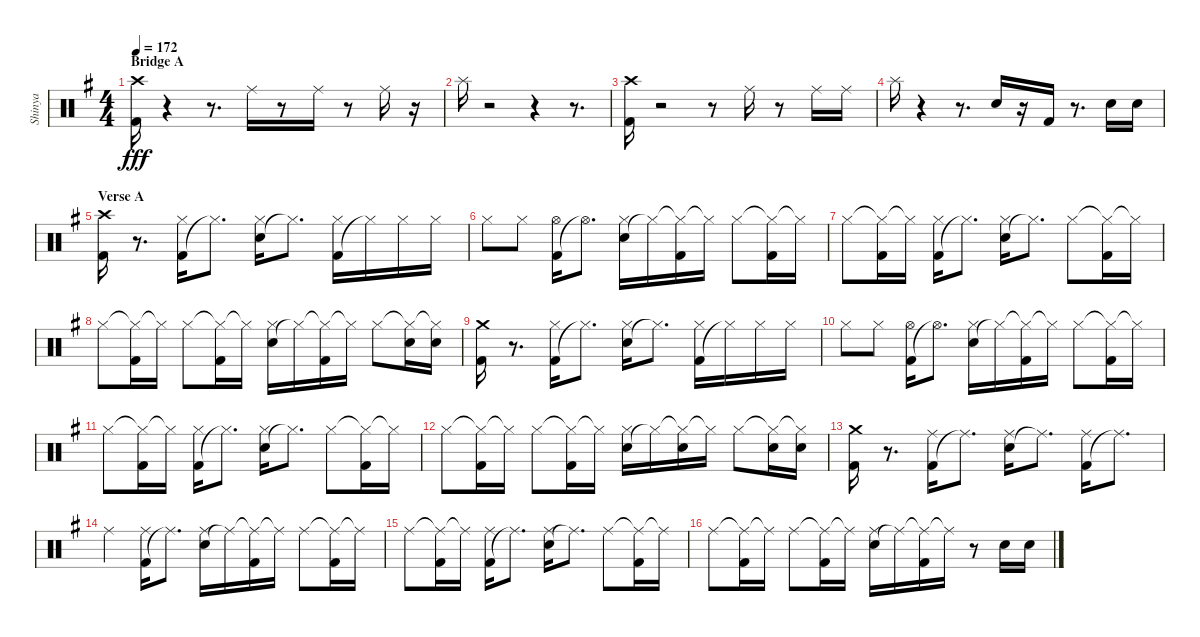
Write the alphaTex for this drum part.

\track ("Shinya" "Shinya") {instrument percussion}
\staff {score}
\articulation defaults
\ts (4 4)
\section ("" "Bridge A")
\tempo 172
\clef neutral
\ks eminor
("Kick (hit) 2" "Crash high (hit)").16{dy fff} r.4 r.8{d} "Ride (middle)".16 r.8 "Ride (middle)".16 r.8 "Ride (middle)".16 r.16 |
"Splash (hit)".16 r.2 r.4 r.8{d} |
("Kick (hit) 2" "Crash high (hit)").16 r.2 r.8 "Ride (middle)".16 r.8 "Ride (middle)".16 "Ride (middle)".16 |
"Splash (hit)".16 r.4 r.8{d} "Snare (hit) 2".16 r.16 "Kick (hit) 2".16 r.8{d} "Snare (hit) 2".16 "Snare (hit) 2".16 |
\section ("" "Verse A")
("Kick (hit) 2" "Crash high (hit)").16 r.8{d} ("Kick (hit) 2" "Hi-Hat (closed)").16 "Hi-Hat (closed)"{t}.8{d} ("Snare (hit) 2" "Hi-Hat (closed)").16 "Hi-Hat (closed)"{t}.8{d} ("Kick (hit) 2" "Hi-Hat (closed)").16 "Hi-Hat (closed)"{t}.16 "Hi-Hat (closed)".16 "Hi-Hat (closed)".16 |
"Hi-Hat (closed)".8 "Hi-Hat (closed)".8 ("Kick (hit) 2" "Hi-Hat (open)").16 "Hi-Hat (open)"{t}.8{d} ("Snare (hit) 2" "Hi-Hat (closed)").16 "Hi-Hat (closed)"{t}.16 ("Hi-Hat (closed)"{t} "Kick (hit) 2").16 "Hi-Hat (closed)"{t}.16 "Hi-Hat (closed)".8 ("Hi-Hat (closed)"{t} "Kick (hit) 2").16 "Hi-Hat (closed)"{t}.16 |
"Hi-Hat (closed)".8 ("Hi-Hat (closed)"{t} "Kick (hit) 2").16 "Hi-Hat (closed)"{t}.16 ("Kick (hit) 2" "Hi-Hat (closed)").16 "Hi-Hat (closed)"{t}.8{d} ("Snare (hit) 2" "Hi-Hat (closed)").16 "Hi-Hat (closed)"{t}.8{d} "Hi-Hat (closed)".8 ("Hi-Hat (closed)"{t} "Kick (hit) 2").16 "Hi-Hat (closed)"{t}.16 |
"Hi-Hat (closed)".8 ("Hi-Hat (closed)"{t} "Kick (hit) 2").16 "Hi-Hat (closed)"{t}.16 "Hi-Hat (closed)".8 ("Hi-Hat (closed)"{t} "Kick (hit) 2").16 "Hi-Hat (closed)"{t}.16 ("Snare (hit) 2" "Hi-Hat (closed)").16 "Hi-Hat (closed)"{t}.16 ("Hi-Hat (closed)"{t} "Kick (hit) 2").16 "Hi-Hat (closed)"{t}.16 "Hi-Hat (closed)".8 ("Hi-Hat (closed)"{t} "Snare (hit) 2").16 ("Hi-Hat (closed)"{t} "Snare (hit) 2").16 |
("Kick (hit) 2" "Crash medium (hit)").16 r.8{d} ("Kick (hit) 2" "Hi-Hat (closed)").16 "Hi-Hat (closed)"{t}.8{d} ("Snare (hit) 2" "Hi-Hat (closed)").16 "Hi-Hat (closed)"{t}.8{d} ("Kick (hit) 2" "Hi-Hat (closed)").16 "Hi-Hat (closed)"{t}.16 "Hi-Hat (closed)".16 "Hi-Hat (closed)".16 |
"Hi-Hat (closed)".8 "Hi-Hat (closed)".8 ("Kick (hit) 2" "Hi-Hat (open)").16 "Hi-Hat (open)"{t}.8{d} ("Snare (hit) 2" "Hi-Hat (closed)").16 "Hi-Hat (closed)"{t}.16 ("Hi-Hat (closed)"{t} "Kick (hit) 2").16 "Hi-Hat (closed)"{t}.16 "Hi-Hat (closed)".8 ("Hi-Hat (closed)"{t} "Kick (hit) 2").16 "Hi-Hat (closed)"{t}.16 |
"Hi-Hat (closed)".8 ("Hi-Hat (closed)"{t} "Kick (hit) 2").16 "Hi-Hat (closed)"{t}.16 ("Kick (hit) 2" "Hi-Hat (closed)").16 "Hi-Hat (closed)"{t}.8{d} ("Snare (hit) 2" "Hi-Hat (closed)").16 "Hi-Hat (closed)"{t}.8{d} "Hi-Hat (closed)".8 ("Hi-Hat (closed)"{t} "Kick (hit) 2").16 "Hi-Hat (closed)"{t}.16 |
"Hi-Hat (closed)".8 ("Hi-Hat (closed)"{t} "Kick (hit) 2").16 "Hi-Hat (closed)"{t}.16 "Hi-Hat (closed)".8 ("Hi-Hat (closed)"{t} "Kick (hit) 2").16 "Hi-Hat (closed)"{t}.16 ("Snare (hit) 2" "Hi-Hat (closed)").16 "Hi-Hat (closed)"{t}.16 ("Hi-Hat (closed)"{t} "Snare (hit) 2").16 "Hi-Hat (closed)"{t}.16 "Hi-Hat (closed)".8 ("Hi-Hat (closed)"{t} "Snare (hit) 2").16 ("Hi-Hat (closed)"{t} "Snare (hit) 2").16 |
("Kick (hit) 2" "Crash medium (hit)").16 r.8{d} ("Kick (hit) 2" "Ride (middle)").16 "Ride (middle)"{t}.8{d} ("Snare (hit) 2" "Ride (middle)").16 "Ride (middle)"{t}.8{d} ("Kick (hit) 2" "Ride (middle)").16 "Ride (middle)"{t}.8{d} |
"Ride (middle)".4 ("Kick (hit) 2" "Ride (middle)").16 "Ride (middle)"{t}.8{d} ("Snare (hit) 2" "Ride (middle)").16 "Ride (middle)"{t}.16 ("Ride (middle)"{t} "Kick (hit) 2").16 "Ride (middle)"{t}.16 "Ride (middle)".8 ("Ride (middle)"{t} "Kick (hit) 2").16 "Ride (middle)"{t}.16 |
"Ride (middle)".8 ("Ride (middle)"{t} "Kick (hit) 2").16 "Ride (middle)"{t}.16 ("Kick (hit) 2" "Ride (middle)").16 "Ride (middle)"{t}.8{d} ("Snare (hit) 2" "Ride (middle)").16 "Ride (middle)"{t}.8{d} "Ride (middle)".8 ("Ride (middle)"{t} "Kick (hit) 2").16 "Ride (middle)"{t}.16 |
"Ride (middle)".8 ("Ride (middle)"{t} "Kick (hit) 2").16 "Ride (middle)"{t}.16 "Ride (middle)".8 ("Ride (middle)"{t} "Kick (hit) 2").16 "Ride (middle)"{t}.16 ("Snare (hit) 2" "Ride (middle)").16 "Ride (middle)"{t}.16 ("Ride (middle)"{t} "Kick (hit) 2").16 "Ride (middle)"{t}.16 r.8 "Snare (hit) 2".16 "Snare (hit) 2".16
